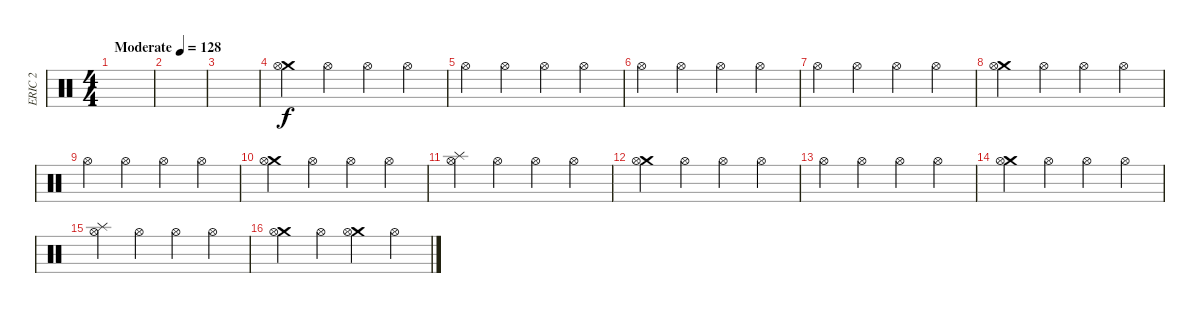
\track ("ERIC 2" "ERIC 2") {instrument percussion}
\staff {score}
\articulation defaults
\ts (4 4)
\tempo (128 "Moderate")
\clef neutral
\ks c
|
|
|
("Crash medium (hit)" "Hi-Hat (open)").4 "Hi-Hat (open)".4 "Hi-Hat (open)".4 "Hi-Hat (open)".4 |
"Hi-Hat (open)".4 "Hi-Hat (open)".4 "Hi-Hat (open)".4 "Hi-Hat (open)".4 |
"Hi-Hat (open)".4 "Hi-Hat (open)".4 "Hi-Hat (open)".4 "Hi-Hat (open)".4 |
"Hi-Hat (open)".4 "Hi-Hat (open)".4 "Hi-Hat (open)".4 "Hi-Hat (open)".4 |
("Crash medium (hit)" "Hi-Hat (open)").4 "Hi-Hat (open)".4 "Hi-Hat (open)".4 "Hi-Hat (open)".4 |
"Hi-Hat (open)".4 "Hi-Hat (open)".4 "Hi-Hat (open)".4 "Hi-Hat (open)".4 |
("Crash medium (hit)" "Hi-Hat (open)").4 "Hi-Hat (open)".4 "Hi-Hat (open)".4 "Hi-Hat (open)".4 |
("Splash (hit)" "Hi-Hat (open)").4 "Hi-Hat (open)".4 "Hi-Hat (open)".4 "Hi-Hat (open)".4 |
("Crash medium (hit)" "Hi-Hat (open)").4 "Hi-Hat (open)".4 "Hi-Hat (open)".4 "Hi-Hat (open)".4 |
"Hi-Hat (open)".4 "Hi-Hat (open)".4 "Hi-Hat (open)".4 "Hi-Hat (open)".4 |
("Crash medium (hit)" "Hi-Hat (open)").4 "Hi-Hat (open)".4 "Hi-Hat (open)".4 "Hi-Hat (open)".4 |
("Splash (hit)" "Hi-Hat (open)").4 "Hi-Hat (open)".4 "Hi-Hat (open)".4 "Hi-Hat (open)".4 |
("Crash medium (hit)" "Hi-Hat (open)").4 "Hi-Hat (open)".4 ("Crash medium (hit)" "Hi-Hat (open)").4 "Hi-Hat (open)".4
